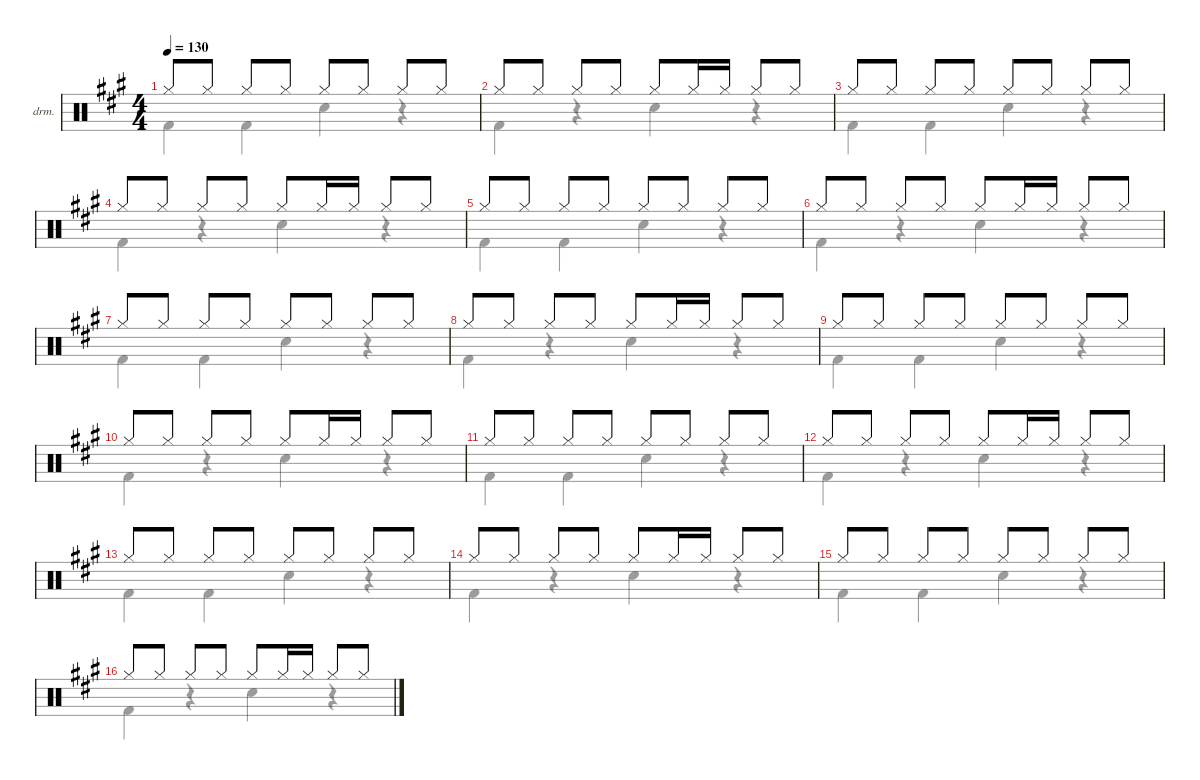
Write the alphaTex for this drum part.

\defaultSystemsLayout 4
\hideDynamics
\bracketExtendMode nobrackets
\firstSystemTrackNameOrientation horizontal
\otherSystemsTrackNameOrientation horizontal
\track ("  " "drm.") {instrument percussion}
\staff {score}
\articulation defaults
\voice
\ts (4 4)
\tempo 130
\clef neutral
\ks f#minor "Hi-Hat (closed)"{acc forcenatural}.8{dy mf beam Up} "Hi-Hat (closed)"{acc forcenatural}.8{beam Up} "Hi-Hat (closed)"{acc forcenatural}.8{beam Up} "Hi-Hat (closed)"{acc forcenatural}.8{beam Up} "Hi-Hat (closed)"{acc forcenatural}.8{beam Up} "Hi-Hat (closed)"{acc forcenatural}.8{beam Up} "Hi-Hat (closed)"{acc forcenatural}.8{beam Up} "Hi-Hat (closed)"{acc forcenatural}.8{beam Up}
|
"Hi-Hat (closed)"{acc forcenatural}.8{beam Up} "Hi-Hat (closed)"{acc forcenatural}.8{beam Up} "Hi-Hat (closed)"{acc forcenatural}.8{beam Up} "Hi-Hat (closed)"{acc forcenatural}.8{beam Up} "Hi-Hat (closed)"{acc forcenatural}.8{beam Up} "Hi-Hat (closed)"{acc forcenatural}.16{beam Up} "Hi-Hat (closed)"{acc forcenatural}.16{beam Up} "Hi-Hat (closed)"{acc forcenatural}.8{beam Up} "Hi-Hat (closed)"{acc forcenatural}.8{beam Up} |
"Hi-Hat (closed)"{acc forcenatural}.8{beam Up} "Hi-Hat (closed)"{acc forcenatural}.8{beam Up} "Hi-Hat (closed)"{acc forcenatural}.8{beam Up} "Hi-Hat (closed)"{acc forcenatural}.8{beam Up} "Hi-Hat (closed)"{acc forcenatural}.8{beam Up} "Hi-Hat (closed)"{acc forcenatural}.8{beam Up} "Hi-Hat (closed)"{acc forcenatural}.8{beam Up} "Hi-Hat (closed)"{acc forcenatural}.8{beam Up} |
"Hi-Hat (closed)"{acc forcenatural}.8{beam Up} "Hi-Hat (closed)"{acc forcenatural}.8{beam Up} "Hi-Hat (closed)"{acc forcenatural}.8{beam Up} "Hi-Hat (closed)"{acc forcenatural}.8{beam Up} "Hi-Hat (closed)"{acc forcenatural}.8{beam Up} "Hi-Hat (closed)"{acc forcenatural}.16{beam Up} "Hi-Hat (closed)"{acc forcenatural}.16{beam Up} "Hi-Hat (closed)"{acc forcenatural}.8{beam Up} "Hi-Hat (closed)"{acc forcenatural}.8{beam Up} |
"Hi-Hat (closed)"{acc forcenatural}.8{beam Up} "Hi-Hat (closed)"{acc forcenatural}.8{beam Up} "Hi-Hat (closed)"{acc forcenatural}.8{beam Up} "Hi-Hat (closed)"{acc forcenatural}.8{beam Up} "Hi-Hat (closed)"{acc forcenatural}.8{beam Up} "Hi-Hat (closed)"{acc forcenatural}.8{beam Up} "Hi-Hat (closed)"{acc forcenatural}.8{beam Up} "Hi-Hat (closed)"{acc forcenatural}.8{beam Up} |
"Hi-Hat (closed)"{acc forcenatural}.8{beam Up} "Hi-Hat (closed)"{acc forcenatural}.8{beam Up} "Hi-Hat (closed)"{acc forcenatural}.8{beam Up} "Hi-Hat (closed)"{acc forcenatural}.8{beam Up} "Hi-Hat (closed)"{acc forcenatural}.8{beam Up} "Hi-Hat (closed)"{acc forcenatural}.16{beam Up} "Hi-Hat (closed)"{acc forcenatural}.16{beam Up} "Hi-Hat (closed)"{acc forcenatural}.8{beam Up} "Hi-Hat (closed)"{acc forcenatural}.8{beam Up} |
"Hi-Hat (closed)"{acc forcenatural}.8{beam Up} "Hi-Hat (closed)"{acc forcenatural}.8{beam Up} "Hi-Hat (closed)"{acc forcenatural}.8{beam Up} "Hi-Hat (closed)"{acc forcenatural}.8{beam Up} "Hi-Hat (closed)"{acc forcenatural}.8{beam Up} "Hi-Hat (closed)"{acc forcenatural}.8{beam Up} "Hi-Hat (closed)"{acc forcenatural}.8{beam Up} "Hi-Hat (closed)"{acc forcenatural}.8{beam Up} |
"Hi-Hat (closed)"{acc forcenatural}.8{beam Up} "Hi-Hat (closed)"{acc forcenatural}.8{beam Up} "Hi-Hat (closed)"{acc forcenatural}.8{beam Up} "Hi-Hat (closed)"{acc forcenatural}.8{beam Up} "Hi-Hat (closed)"{acc forcenatural}.8{beam Up} "Hi-Hat (closed)"{acc forcenatural}.16{beam Up} "Hi-Hat (closed)"{acc forcenatural}.16{beam Up} "Hi-Hat (closed)"{acc forcenatural}.8{beam Up} "Hi-Hat (closed)"{acc forcenatural}.8{beam Up} |
"Hi-Hat (closed)"{acc forcenatural}.8{beam Up} "Hi-Hat (closed)"{acc forcenatural}.8{beam Up} "Hi-Hat (closed)"{acc forcenatural}.8{beam Up} "Hi-Hat (closed)"{acc forcenatural}.8{beam Up} "Hi-Hat (closed)"{acc forcenatural}.8{beam Up} "Hi-Hat (closed)"{acc forcenatural}.8{beam Up} "Hi-Hat (closed)"{acc forcenatural}.8{beam Up} "Hi-Hat (closed)"{acc forcenatural}.8{beam Up} |
"Hi-Hat (closed)"{acc forcenatural}.8{beam Up} "Hi-Hat (closed)"{acc forcenatural}.8{beam Up} "Hi-Hat (closed)"{acc forcenatural}.8{beam Up} "Hi-Hat (closed)"{acc forcenatural}.8{beam Up} "Hi-Hat (closed)"{acc forcenatural}.8{beam Up} "Hi-Hat (closed)"{acc forcenatural}.16{beam Up} "Hi-Hat (closed)"{acc forcenatural}.16{beam Up} "Hi-Hat (closed)"{acc forcenatural}.8{beam Up} "Hi-Hat (closed)"{acc forcenatural}.8{beam Up} |
"Hi-Hat (closed)"{acc forcenatural}.8{beam Up} "Hi-Hat (closed)"{acc forcenatural}.8{beam Up} "Hi-Hat (closed)"{acc forcenatural}.8{beam Up} "Hi-Hat (closed)"{acc forcenatural}.8{beam Up} "Hi-Hat (closed)"{acc forcenatural}.8{beam Up} "Hi-Hat (closed)"{acc forcenatural}.8{beam Up} "Hi-Hat (closed)"{acc forcenatural}.8{beam Up} "Hi-Hat (closed)"{acc forcenatural}.8{beam Up} |
"Hi-Hat (closed)"{acc forcenatural}.8{beam Up} "Hi-Hat (closed)"{acc forcenatural}.8{beam Up} "Hi-Hat (closed)"{acc forcenatural}.8{beam Up} "Hi-Hat (closed)"{acc forcenatural}.8{beam Up} "Hi-Hat (closed)"{acc forcenatural}.8{beam Up} "Hi-Hat (closed)"{acc forcenatural}.16{beam Up} "Hi-Hat (closed)"{acc forcenatural}.16{beam Up} "Hi-Hat (closed)"{acc forcenatural}.8{beam Up} "Hi-Hat (closed)"{acc forcenatural}.8{beam Up} |
"Hi-Hat (closed)"{acc forcenatural}.8{beam Up} "Hi-Hat (closed)"{acc forcenatural}.8{beam Up} "Hi-Hat (closed)"{acc forcenatural}.8{beam Up} "Hi-Hat (closed)"{acc forcenatural}.8{beam Up} "Hi-Hat (closed)"{acc forcenatural}.8{beam Up} "Hi-Hat (closed)"{acc forcenatural}.8{beam Up} "Hi-Hat (closed)"{acc forcenatural}.8{beam Up} "Hi-Hat (closed)"{acc forcenatural}.8{beam Up} |
"Hi-Hat (closed)"{acc forcenatural}.8{beam Up} "Hi-Hat (closed)"{acc forcenatural}.8{beam Up} "Hi-Hat (closed)"{acc forcenatural}.8{beam Up} "Hi-Hat (closed)"{acc forcenatural}.8{beam Up} "Hi-Hat (closed)"{acc forcenatural}.8{beam Up} "Hi-Hat (closed)"{acc forcenatural}.16{beam Up} "Hi-Hat (closed)"{acc forcenatural}.16{beam Up} "Hi-Hat (closed)"{acc forcenatural}.8{beam Up} "Hi-Hat (closed)"{acc forcenatural}.8{beam Up} |
"Hi-Hat (closed)"{acc forcenatural}.8{beam Up} "Hi-Hat (closed)"{acc forcenatural}.8{beam Up} "Hi-Hat (closed)"{acc forcenatural}.8{beam Up} "Hi-Hat (closed)"{acc forcenatural}.8{beam Up} "Hi-Hat (closed)"{acc forcenatural}.8{beam Up} "Hi-Hat (closed)"{acc forcenatural}.8{beam Up} "Hi-Hat (closed)"{acc forcenatural}.8{beam Up} "Hi-Hat (closed)"{acc forcenatural}.8{beam Up} |
"Hi-Hat (closed)"{acc forcenatural}.8{beam Up} "Hi-Hat (closed)"{acc forcenatural}.8{beam Up} "Hi-Hat (closed)"{acc forcenatural}.8{beam Up} "Hi-Hat (closed)"{acc forcenatural}.8{beam Up} "Hi-Hat (closed)"{acc forcenatural}.8{beam Up} "Hi-Hat (closed)"{acc forcenatural}.16{beam Up} "Hi-Hat (closed)"{acc forcenatural}.16{beam Up} "Hi-Hat (closed)"{acc forcenatural}.8{beam Up} "Hi-Hat (closed)"{acc forcenatural}.8{beam Up}
\voice
\clef neutral
\ottava regular
\simile none
\ks f#minor "Kick (hit) 2"{acc forcenatural}.4{dy mf beam Down} "Kick (hit) 2"{acc forcenatural}.4{beam Down} "Snare (hit) 2"{acc forcenatural}.4{beam Down}
r.4{beam Down} |
"Kick (hit) 2"{acc forcenatural}.4{beam Down} r.4{beam Down} "Snare (hit) 2"{acc forcenatural}.4{beam Down} r.4{beam Down} |
"Kick (hit) 2"{acc forcenatural}.4{beam Down} "Kick (hit) 2"{acc forcenatural}.4{beam Down} "Snare (hit) 2"{acc forcenatural}.4{beam Down} r.4{beam Down} |
"Kick (hit) 2"{acc forcenatural}.4{beam Down} r.4{beam Down} "Snare (hit) 2"{acc forcenatural}.4{beam Down} r.4{beam Down} |
"Kick (hit) 2"{acc forcenatural}.4{beam Down} "Kick (hit) 2"{acc forcenatural}.4{beam Down} "Snare (hit) 2"{acc forcenatural}.4{beam Down} r.4{beam Down} |
"Kick (hit) 2"{acc forcenatural}.4{beam Down} r.4{beam Down} "Snare (hit) 2"{acc forcenatural}.4{beam Down} r.4{beam Down} |
"Kick (hit) 2"{acc forcenatural}.4{beam Down} "Kick (hit) 2"{acc forcenatural}.4{beam Down} "Snare (hit) 2"{acc forcenatural}.4{beam Down} r.4{beam Down} |
"Kick (hit) 2"{acc forcenatural}.4{beam Down} r.4{beam Down} "Snare (hit) 2"{acc forcenatural}.4{beam Down} r.4{beam Down} |
"Kick (hit) 2"{acc forcenatural}.4{beam Down} "Kick (hit) 2"{acc forcenatural}.4{beam Down} "Snare (hit) 2"{acc forcenatural}.4{beam Down} r.4{beam Down} |
"Kick (hit) 2"{acc forcenatural}.4{beam Down} r.4{beam Down} "Snare (hit) 2"{acc forcenatural}.4{beam Down} r.4{beam Down} |
"Kick (hit) 2"{acc forcenatural}.4{beam Down} "Kick (hit) 2"{acc forcenatural}.4{beam Down} "Snare (hit) 2"{acc forcenatural}.4{beam Down} r.4{beam Down} |
"Kick (hit) 2"{acc forcenatural}.4{beam Down} r.4{beam Down} "Snare (hit) 2"{acc forcenatural}.4{beam Down} r.4{beam Down} |
"Kick (hit) 2"{acc forcenatural}.4{beam Down} "Kick (hit) 2"{acc forcenatural}.4{beam Down} "Snare (hit) 2"{acc forcenatural}.4{beam Down} r.4{beam Down} |
"Kick (hit) 2"{acc forcenatural}.4{beam Down} r.4{beam Down} "Snare (hit) 2"{acc forcenatural}.4{beam Down} r.4{beam Down} |
"Kick (hit) 2"{acc forcenatural}.4{beam Down} "Kick (hit) 2"{acc forcenatural}.4{beam Down} "Snare (hit) 2"{acc forcenatural}.4{beam Down} r.4{beam Down} |
"Kick (hit) 2"{acc forcenatural}.4{beam Down} r.4{beam Down} "Snare (hit) 2"{acc forcenatural}.4{beam Down} r.4{beam Down}
